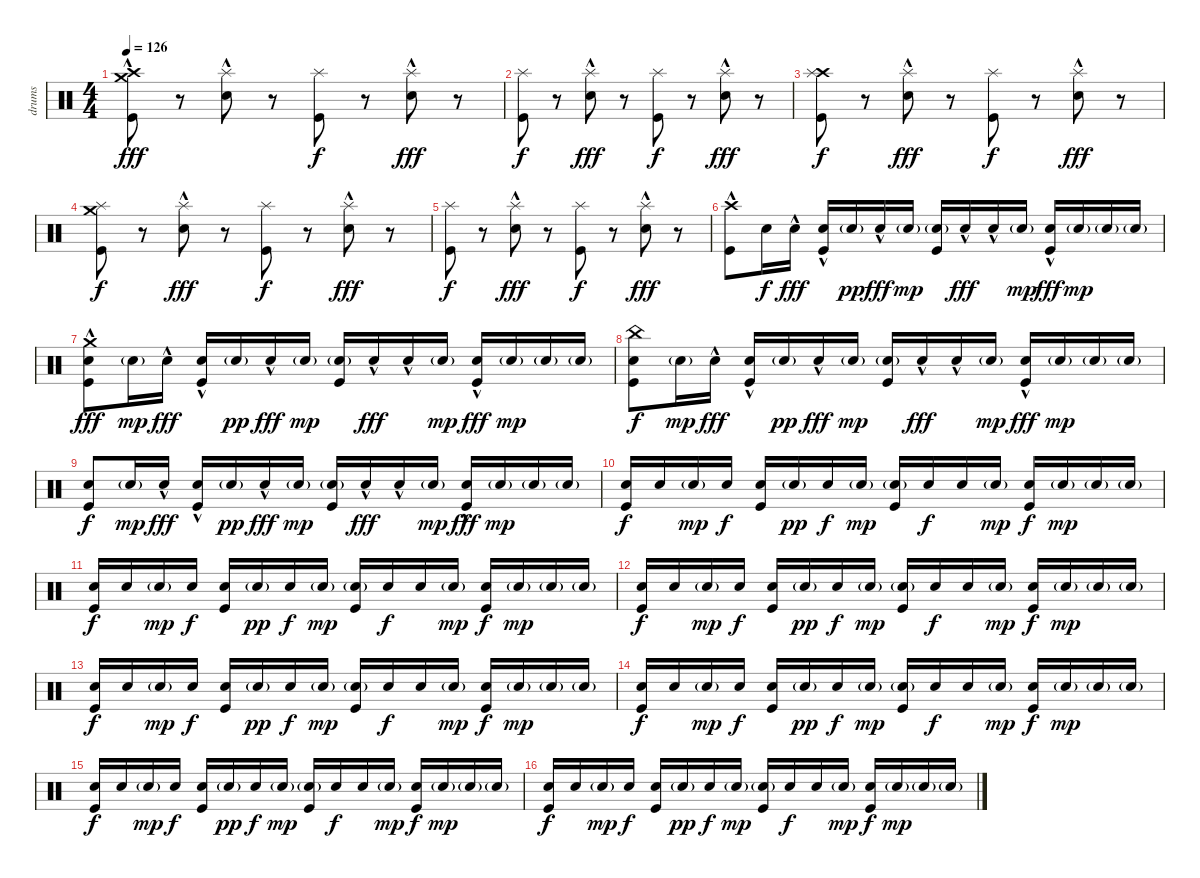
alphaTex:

\track ("drums" "drums") {instrument percussion}
\staff {score}
\articulation defaults
\ts (4 4)
\tempo 126
\clef neutral
\ks c
("Crash medium (hit)"{hac} "Crash high (hit)"{hac} "Kick (hit)"{hac}).8{dy fff} r.8 ("Splash (hit)" "Electric Snare (hit)"{hac}).8 r.8 ("Splash (hit)" "Kick (hit)").8{dy f} r.8 ("Splash (hit)" "Electric Snare (hit)"{hac}).8{dy fff} r.8 |
("Splash (hit)" "Kick (hit)").8{dy f} r.8 ("Splash (hit)" "Electric Snare (hit)"{hac}).8{dy fff} r.8 ("Splash (hit)" "Kick (hit)").8{dy f} r.8 ("Splash (hit)" "Electric Snare (hit)"{hac}).8{dy fff} r.8 |
("Crash high (hit)" "Splash (hit)" "Kick (hit)").8{dy f} r.8 ("Splash (hit)" "Electric Snare (hit)"{hac}).8{dy fff} r.8 ("Splash (hit)" "Kick (hit)").8{dy f} r.8 ("Splash (hit)" "Electric Snare (hit)"{hac}).8{dy fff} r.8 |
("Crash medium (hit)" "Splash (hit)" "Kick (hit)").8{dy f} r.8 ("Splash (hit)" "Electric Snare (hit)"{hac}).8{dy fff} r.8 ("Splash (hit)" "Kick (hit)").8{dy f} r.8 ("Splash (hit)" "Electric Snare (hit)"{hac}).8{dy fff} r.8 |
("Splash (hit)" "Kick (hit)").8{dy f} r.8 ("Splash (hit)" "Electric Snare (hit)"{hac}).8{dy fff} r.8 ("Splash (hit)" "Kick (hit)").8{dy f} r.8 ("Splash (hit)" "Electric Snare (hit)"{hac}).8{dy fff} r.8 |
("Crash high (hit)"{hac} "Kick (hit)").8 "Electric Snare (hit)".16{dy f} "Electric Snare (hit)"{hac}.16{dy fff} ("Kick (hit)" "Electric Snare (hit)"{hac}).16 "Electric Snare (hit)"{g}.16{dy pp} "Electric Snare (hit)"{hac}.16{dy fff} "Electric Snare (hit)"{g}.16{dy mp} ("Kick (hit)" "Electric Snare (hit)"{g}).16 "Electric Snare (hit)"{hac}.16{dy fff} "Electric Snare (hit)"{hac}.16 "Electric Snare (hit)"{g}.16{dy mp} ("Kick (hit)" "Electric Snare (hit)"{hac}).16{dy fff} "Electric Snare (hit)"{g}.16{dy mp} "Electric Snare (hit)"{g}.16 "Electric Snare (hit)"{g}.16 |
("Crash medium (hit)"{hac} "Kick (hit)" "Electric Snare (hit)").8{dy fff} "Electric Snare (hit)"{g}.16{dy mp} "Electric Snare (hit)"{hac}.16{dy fff} ("Kick (hit)" "Electric Snare (hit)"{hac}).16 "Electric Snare (hit)"{g}.16{dy pp} "Electric Snare (hit)"{hac}.16{dy fff} "Electric Snare (hit)"{g}.16{dy mp} ("Kick (hit)" "Electric Snare (hit)"{g}).16 "Electric Snare (hit)"{hac}.16{dy fff} "Electric Snare (hit)"{hac}.16 "Electric Snare (hit)"{g}.16{dy mp} ("Kick (hit)" "Electric Snare (hit)"{hac}).16{dy fff} "Electric Snare (hit)"{g}.16{dy mp} "Electric Snare (hit)"{g}.16 "Electric Snare (hit)"{g}.16 |
("China (hit)" "Kick (hit)" "Electric Snare (hit)").8{dy f} "Electric Snare (hit)"{g}.16{dy mp} "Electric Snare (hit)"{hac}.16{dy fff} ("Kick (hit)" "Electric Snare (hit)"{hac}).16 "Electric Snare (hit)"{g}.16{dy pp} "Electric Snare (hit)"{hac}.16{dy fff} "Electric Snare (hit)"{g}.16{dy mp} ("Kick (hit)" "Electric Snare (hit)"{g}).16 "Electric Snare (hit)"{hac}.16{dy fff} "Electric Snare (hit)"{hac}.16 "Electric Snare (hit)"{g}.16{dy mp} ("Kick (hit)" "Electric Snare (hit)"{hac}).16{dy fff} "Electric Snare (hit)"{g}.16{dy mp} "Electric Snare (hit)"{g}.16 "Electric Snare (hit)"{g}.16 |
("Kick (hit)" "Electric Snare (hit)").8{dy f} "Electric Snare (hit)"{g}.16{dy mp} "Electric Snare (hit)"{hac}.16{dy fff} ("Kick (hit)" "Electric Snare (hit)"{hac}).16 "Electric Snare (hit)"{g}.16{dy pp} "Electric Snare (hit)"{hac}.16{dy fff} "Electric Snare (hit)"{g}.16{dy mp} ("Kick (hit)" "Electric Snare (hit)"{g}).16 "Electric Snare (hit)"{hac}.16{dy fff} "Electric Snare (hit)"{hac}.16 "Electric Snare (hit)"{g}.16{dy mp} ("Kick (hit)" "Electric Snare (hit)"{hac}).16{dy fff} "Electric Snare (hit)"{g}.16{dy mp} "Electric Snare (hit)"{g}.16 "Electric Snare (hit)"{g}.16 |
("Kick (hit)" "Electric Snare (hit)").16{dy f} "Electric Snare (hit)".16 "Electric Snare (hit)"{g}.16{dy mp} "Electric Snare (hit)".16{dy f} ("Kick (hit)" "Electric Snare (hit)").16 "Electric Snare (hit)"{g}.16{dy pp} "Electric Snare (hit)".16{dy f} "Electric Snare (hit)"{g}.16{dy mp} ("Kick (hit)" "Electric Snare (hit)"{g}).16 "Electric Snare (hit)".16{dy f} "Electric Snare (hit)".16 "Electric Snare (hit)"{g}.16{dy mp} ("Kick (hit)" "Electric Snare (hit)").16{dy f} "Electric Snare (hit)"{g}.16{dy mp} "Electric Snare (hit)"{g}.16 "Electric Snare (hit)"{g}.16 |
("Kick (hit)" "Electric Snare (hit)").16{dy f} "Electric Snare (hit)".16 "Electric Snare (hit)"{g}.16{dy mp} "Electric Snare (hit)".16{dy f} ("Kick (hit)" "Electric Snare (hit)").16 "Electric Snare (hit)"{g}.16{dy pp} "Electric Snare (hit)".16{dy f} "Electric Snare (hit)"{g}.16{dy mp} ("Kick (hit)" "Electric Snare (hit)"{g}).16 "Electric Snare (hit)".16{dy f} "Electric Snare (hit)".16 "Electric Snare (hit)"{g}.16{dy mp} ("Kick (hit)" "Electric Snare (hit)").16{dy f} "Electric Snare (hit)"{g}.16{dy mp} "Electric Snare (hit)"{g}.16 "Electric Snare (hit)"{g}.16 |
("Kick (hit)" "Electric Snare (hit)").16{dy f} "Electric Snare (hit)".16 "Electric Snare (hit)"{g}.16{dy mp} "Electric Snare (hit)".16{dy f} ("Kick (hit)" "Electric Snare (hit)").16 "Electric Snare (hit)"{g}.16{dy pp} "Electric Snare (hit)".16{dy f} "Electric Snare (hit)"{g}.16{dy mp} ("Kick (hit)" "Electric Snare (hit)"{g}).16 "Electric Snare (hit)".16{dy f} "Electric Snare (hit)".16 "Electric Snare (hit)"{g}.16{dy mp} ("Kick (hit)" "Electric Snare (hit)").16{dy f} "Electric Snare (hit)"{g}.16{dy mp} "Electric Snare (hit)"{g}.16 "Electric Snare (hit)"{g}.16 |
("Kick (hit)" "Electric Snare (hit)").16{dy f} "Electric Snare (hit)".16 "Electric Snare (hit)"{g}.16{dy mp} "Electric Snare (hit)".16{dy f} ("Kick (hit)" "Electric Snare (hit)").16 "Electric Snare (hit)"{g}.16{dy pp} "Electric Snare (hit)".16{dy f} "Electric Snare (hit)"{g}.16{dy mp} ("Kick (hit)" "Electric Snare (hit)"{g}).16 "Electric Snare (hit)".16{dy f} "Electric Snare (hit)".16 "Electric Snare (hit)"{g}.16{dy mp} ("Kick (hit)" "Electric Snare (hit)").16{dy f} "Electric Snare (hit)"{g}.16{dy mp} "Electric Snare (hit)"{g}.16 "Electric Snare (hit)"{g}.16 |
("Kick (hit)" "Electric Snare (hit)").16{dy f} "Electric Snare (hit)".16 "Electric Snare (hit)"{g}.16{dy mp} "Electric Snare (hit)".16{dy f} ("Kick (hit)" "Electric Snare (hit)").16 "Electric Snare (hit)"{g}.16{dy pp} "Electric Snare (hit)".16{dy f} "Electric Snare (hit)"{g}.16{dy mp} ("Kick (hit)" "Electric Snare (hit)"{g}).16 "Electric Snare (hit)".16{dy f} "Electric Snare (hit)".16 "Electric Snare (hit)"{g}.16{dy mp} ("Kick (hit)" "Electric Snare (hit)").16{dy f} "Electric Snare (hit)"{g}.16{dy mp} "Electric Snare (hit)"{g}.16 "Electric Snare (hit)"{g}.16 |
("Kick (hit)" "Electric Snare (hit)").16{dy f} "Electric Snare (hit)".16 "Electric Snare (hit)"{g}.16{dy mp} "Electric Snare (hit)".16{dy f} ("Kick (hit)" "Electric Snare (hit)").16 "Electric Snare (hit)"{g}.16{dy pp} "Electric Snare (hit)".16{dy f} "Electric Snare (hit)"{g}.16{dy mp} ("Kick (hit)" "Electric Snare (hit)"{g}).16 "Electric Snare (hit)".16{dy f} "Electric Snare (hit)".16 "Electric Snare (hit)"{g}.16{dy mp} ("Kick (hit)" "Electric Snare (hit)").16{dy f} "Electric Snare (hit)"{g}.16{dy mp} "Electric Snare (hit)"{g}.16 "Electric Snare (hit)"{g}.16 |
("Kick (hit)" "Electric Snare (hit)").16{dy f} "Electric Snare (hit)".16 "Electric Snare (hit)"{g}.16{dy mp} "Electric Snare (hit)".16{dy f} ("Kick (hit)" "Electric Snare (hit)").16 "Electric Snare (hit)"{g}.16{dy pp} "Electric Snare (hit)".16{dy f} "Electric Snare (hit)"{g}.16{dy mp} ("Kick (hit)" "Electric Snare (hit)"{g}).16 "Electric Snare (hit)".16{dy f} "Electric Snare (hit)".16 "Electric Snare (hit)"{g}.16{dy mp} ("Kick (hit)" "Electric Snare (hit)").16{dy f} "Electric Snare (hit)"{g}.16{dy mp} "Electric Snare (hit)"{g}.16 "Electric Snare (hit)"{g}.16
